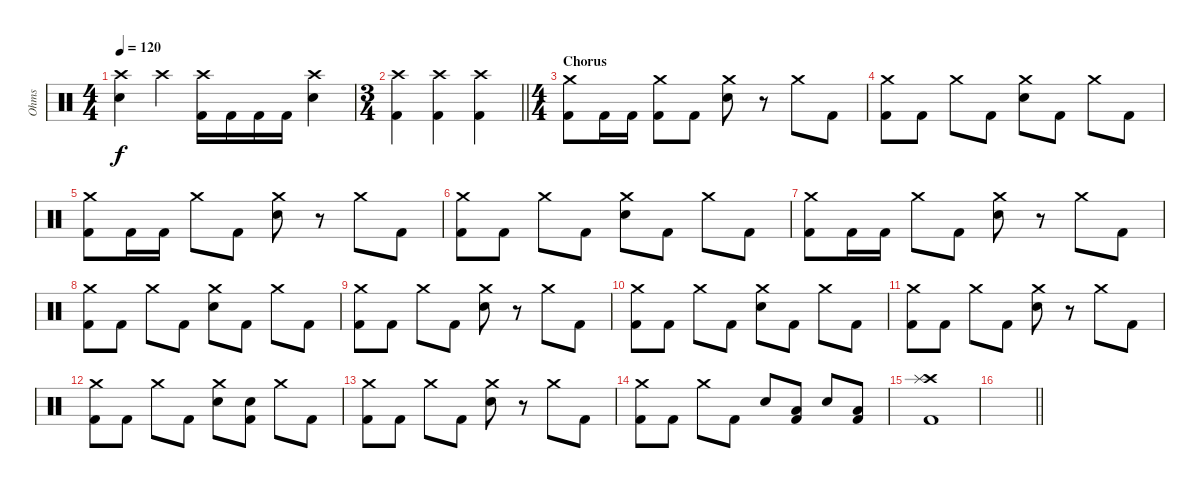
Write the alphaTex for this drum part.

\track ("Ohms" "Ohms") {instrument percussion}
\staff {score}
\articulation defaults
\ts (4 4)
\tempo 120
\clef neutral
\ks c
("Crash high (hit)" "Snare (hit) 2").4{dy f} "Crash high (hit)".4 ("Crash high (hit)" "Kick (hit) 2").16 "Kick (hit) 2".16 "Kick (hit) 2".16 "Kick (hit) 2".16 ("Crash high (hit)" "Snare (hit) 2").4 |
\ts (3 4)
\barLineRight lightlight
("Crash high (hit)" "Kick (hit) 2").4 ("Crash high (hit)" "Kick (hit) 2").4 ("Crash high (hit)" "Kick (hit) 2").4 |
\ts (4 4)
\section ("" "Chorus")
("Crash medium (hit)" "Kick (hit) 2").8 "Kick (hit) 2".16 "Kick (hit) 2".16 ("Crash medium (hit)" "Kick (hit) 2").8 "Kick (hit) 2".8 ("Crash medium (hit)" "Snare (hit) 2").8 r.8 "Crash medium (hit)".8 "Kick (hit) 2".8 |
("Crash medium (hit)" "Kick (hit) 2").8 "Kick (hit) 2".8 "Crash medium (hit)".8 "Kick (hit) 2".8 ("Crash medium (hit)" "Snare (hit) 2").8 "Kick (hit) 2".8 "Crash medium (hit)".8 "Kick (hit) 2".8 |
("Crash medium (hit)" "Kick (hit) 2").8 "Kick (hit) 2".16 "Kick (hit) 2".16 "Crash medium (hit)".8 "Kick (hit) 2".8 ("Crash medium (hit)" "Snare (hit) 2").8 r.8 "Crash medium (hit)".8 "Kick (hit) 2".8 |
("Crash medium (hit)" "Kick (hit) 2").8 "Kick (hit) 2".8 "Crash medium (hit)".8 "Kick (hit) 2".8 ("Crash medium (hit)" "Snare (hit) 2").8 "Kick (hit) 2".8 "Crash medium (hit)".8 "Kick (hit) 2".8 |
("Crash medium (hit)" "Kick (hit) 2").8 "Kick (hit) 2".16 "Kick (hit) 2".16 "Crash medium (hit)".8 "Kick (hit) 2".8 ("Crash medium (hit)" "Snare (hit) 2").8 r.8 "Crash medium (hit)".8 "Kick (hit) 2".8 |
("Crash medium (hit)" "Kick (hit) 2").8 "Kick (hit) 2".8 "Crash medium (hit)".8 "Kick (hit) 2".8 ("Crash medium (hit)" "Snare (hit) 2").8 "Kick (hit) 2".8 "Crash medium (hit)".8 "Kick (hit) 2".8 |
("Crash medium (hit)" "Kick (hit) 2").8 "Kick (hit) 2".8 "Crash medium (hit)".8 "Kick (hit) 2".8 ("Crash medium (hit)" "Snare (hit) 2").8 r.8 "Crash medium (hit)".8 "Kick (hit) 2".8 |
("Crash medium (hit)" "Kick (hit) 2").8 "Kick (hit) 2".8 "Crash medium (hit)".8 "Kick (hit) 2".8 ("Crash medium (hit)" "Snare (hit) 2").8 "Kick (hit) 2".8 "Crash medium (hit)".8 "Kick (hit) 2".8 |
("Crash medium (hit)" "Kick (hit) 2").8 "Kick (hit) 2".8 "Crash medium (hit)".8 "Kick (hit) 2".8 ("Crash medium (hit)" "Snare (hit) 2").8 r.8 "Crash medium (hit)".8 "Kick (hit) 2".8 |
("Crash medium (hit)" "Kick (hit) 2").8 "Kick (hit) 2".8 "Crash medium (hit)".8 "Kick (hit) 2".8 ("Crash medium (hit)" "Snare (hit) 2").8 ("Snare (hit) 2" "Kick (hit) 2").8 "Crash medium (hit)".8 "Kick (hit) 2".8 |
("Crash medium (hit)" "Kick (hit) 2").8 "Kick (hit) 2".8 "Crash medium (hit)".8 "Kick (hit) 2".8 ("Crash medium (hit)" "Snare (hit) 2").8 r.8 "Crash medium (hit)".8 "Kick (hit) 2".8 |
("Crash medium (hit)" "Kick (hit) 2").8 "Kick (hit) 2".8 "Crash medium (hit)".8 "Kick (hit) 2".8 "Snare (hit) 2".8 ("Low Tom (hit)" "Kick (hit) 2").8 "Snare (hit) 2".8 ("Low Floor Tom (hit)" "Kick (hit) 2").8 |
("Crash high (hit)" "Splash (hit)" "Kick (hit) 2").1 |
\barLineRight lightlight
